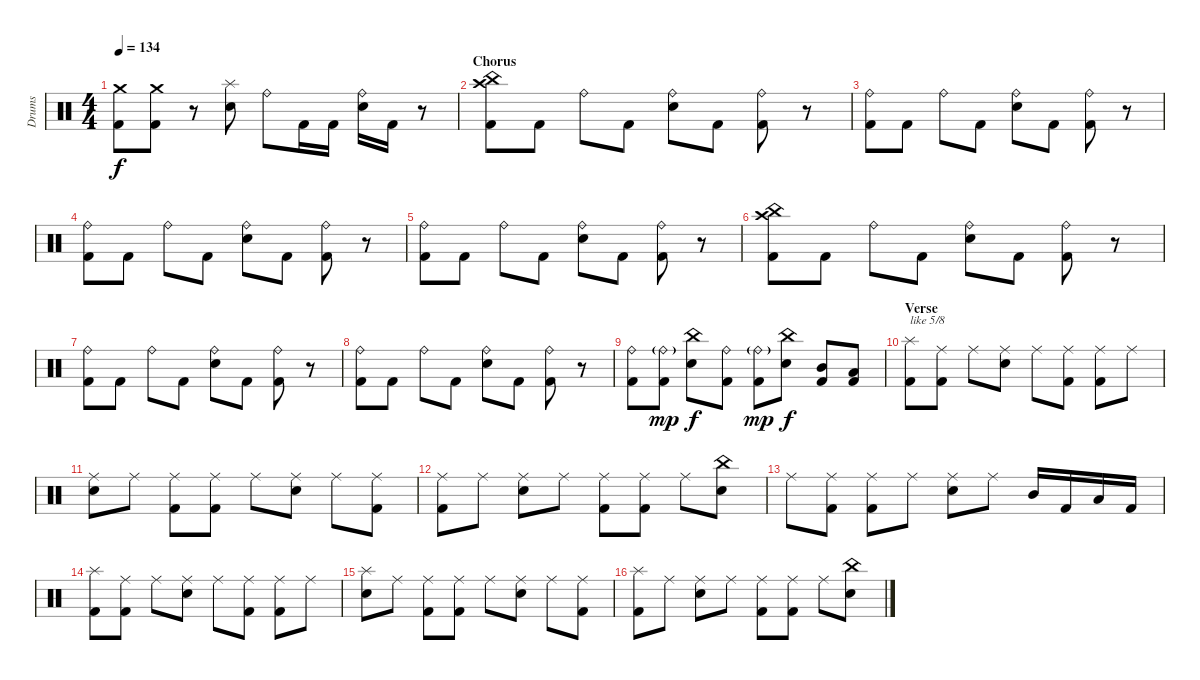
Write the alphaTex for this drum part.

\track ("Drums" "Drums") {instrument percussion}
\staff {score}
\articulation defaults
\ts (4 4)
\tempo 134
\clef neutral
\ks c
("Crash medium (hit)" "Kick (hit) 2").8{dy f} ("Crash medium (hit)" "Kick (hit) 2").8 r.8 ("Splash (hit)" "Electric Snare (hit)").8 "Ride (bell)".8 "Kick (hit) 2".16 "Kick (hit) 2".16 ("Ride (bell)" "Electric Snare (hit)").16 "Kick (hit) 2".16 r.8 |
\section ("" "Chorus")
("Crash high (hit)" "China (hit)" "Kick (hit) 2").8 "Kick (hit) 2".8 "Ride (bell)".8 "Kick (hit) 2".8 ("Ride (bell)" "Electric Snare (hit)").8 "Kick (hit) 2".8 ("Ride (bell)" "Kick (hit) 2").8 r.8 |
("Ride (bell)" "Kick (hit) 2").8 "Kick (hit) 2".8 "Ride (bell)".8 "Kick (hit) 2".8 ("Ride (bell)" "Electric Snare (hit)").8 "Kick (hit) 2".8 ("Ride (bell)" "Kick (hit) 2").8 r.8 |
("Ride (bell)" "Kick (hit) 2").8 "Kick (hit) 2".8 "Ride (bell)".8 "Kick (hit) 2".8 ("Ride (bell)" "Electric Snare (hit)").8 "Kick (hit) 2".8 ("Ride (bell)" "Kick (hit) 2").8 r.8 |
("Ride (bell)" "Kick (hit) 2").8 "Kick (hit) 2".8 "Ride (bell)".8 "Kick (hit) 2".8 ("Ride (bell)" "Electric Snare (hit)").8 "Kick (hit) 2".8 ("Ride (bell)" "Kick (hit) 2").8 r.8 |
("Crash high (hit)" "China (hit)" "Kick (hit) 2").8 "Kick (hit) 2".8 "Ride (bell)".8 "Kick (hit) 2".8 ("Ride (bell)" "Electric Snare (hit)").8 "Kick (hit) 2".8 ("Ride (bell)" "Kick (hit) 2").8 r.8 |
("Ride (bell)" "Kick (hit) 2").8 "Kick (hit) 2".8 "Ride (bell)".8 "Kick (hit) 2".8 ("Ride (bell)" "Electric Snare (hit)").8 "Kick (hit) 2".8 ("Ride (bell)" "Kick (hit) 2").8 r.8 |
("Ride (bell)" "Kick (hit) 2").8 "Kick (hit) 2".8 "Ride (bell)".8 "Kick (hit) 2".8 ("Ride (bell)" "Electric Snare (hit)").8 "Kick (hit) 2".8 ("Ride (bell)" "Kick (hit) 2").8 r.8 |
("Ride (bell)" "Kick (hit) 2").8 ("Ride (bell)"{g} "Kick (hit) 2").8{dy mp} ("China (hit)" "Electric Snare (hit)").8{dy f} ("Ride (bell)" "Kick (hit) 2").8 ("Ride (bell)"{g} "Kick (hit) 2").8{dy mp} ("China (hit)" "Electric Snare (hit)").8{dy f} ("Mid Tom (hit)" "Kick (hit) 2").8 ("Low Tom (hit)" "Kick (hit) 2").8 |
\section ("" "Verse")
("Splash (hit)" "Kick (hit) 2").8{txt "like 5/8"} ("Ride (middle)" "Kick (hit) 2").8 "Ride (middle)".8 ("Ride (middle)" "Electric Snare (hit)").8 "Ride (middle)".8 ("Ride (middle)" "Kick (hit) 2").8 ("Ride (middle)" "Kick (hit) 2").8 "Ride (middle)".8 |
("Ride (middle)" "Electric Snare (hit)").8 "Ride (middle)".8 ("Ride (middle)" "Kick (hit) 2").8 ("Ride (middle)" "Kick (hit) 2").8 "Ride (middle)".8 ("Ride (middle)" "Electric Snare (hit)").8 "Ride (middle)".8 ("Ride (middle)" "Kick (hit) 2").8 |
("Ride (middle)" "Kick (hit) 2").8 "Ride (middle)".8 ("Ride (middle)" "Electric Snare (hit)").8 "Ride (middle)".8 ("Ride (middle)" "Kick (hit) 2").8 ("Ride (middle)" "Kick (hit) 2").8 "Ride (middle)".8 ("China (hit)" "Electric Snare (hit)").8 |
"Ride (middle)".8 ("Ride (middle)" "Kick (hit) 2").8 ("Ride (middle)" "Kick (hit) 2").8 "Ride (middle)".8 ("Ride (middle)" "Electric Snare (hit)").8 "Ride (middle)".8 "Mid Tom (hit)".16 "Kick (hit) 2".16 "Low Tom (hit)".16 "Kick (hit) 2".16 |
("Splash (hit)" "Kick (hit) 2").8 ("Ride (middle)" "Kick (hit) 2").8 "Ride (middle)".8 ("Ride (middle)" "Electric Snare (hit)").8 "Ride (middle)".8 ("Ride (middle)" "Kick (hit) 2").8 ("Ride (middle)" "Kick (hit) 2").8 "Ride (middle)".8 |
("Splash (hit)" "Electric Snare (hit)").8 "Ride (middle)".8 ("Ride (middle)" "Kick (hit) 2").8 ("Ride (middle)" "Kick (hit) 2").8 "Ride (middle)".8 ("Ride (middle)" "Electric Snare (hit)").8 "Ride (middle)".8 ("Ride (middle)" "Kick (hit) 2").8 |
("Splash (hit)" "Kick (hit) 2").8 "Ride (middle)".8 ("Ride (middle)" "Electric Snare (hit)").8 "Ride (middle)".8 ("Ride (middle)" "Kick (hit) 2").8 ("Ride (middle)" "Kick (hit) 2").8 "Ride (middle)".8 ("China (hit)" "Electric Snare (hit)").8
